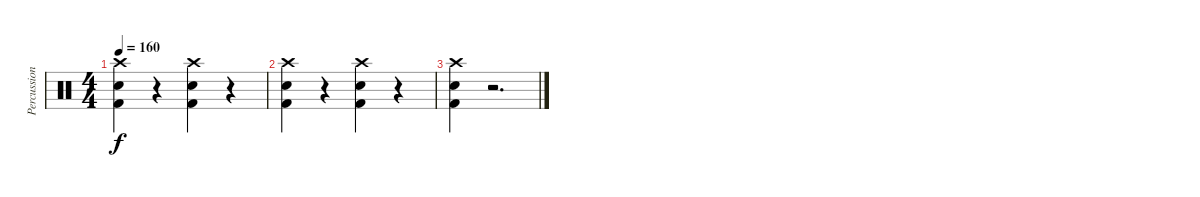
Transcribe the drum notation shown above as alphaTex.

\track ("Percussion" "Percussion") {instrument percussion}
\staff {score}
\articulation defaults
\ts (4 4)
\tempo 160
\clef neutral
\ks c
("Crash high (hit)" "Snare (hit) 2" "Kick (hit) 2").4{dy f} r.4 ("Crash high (hit)" "Snare (hit) 2" "Kick (hit) 2").4 r.4 |
("Crash high (hit)" "Snare (hit) 2" "Kick (hit) 2").4 r.4 ("Crash high (hit)" "Snare (hit) 2" "Kick (hit) 2").4 r.4 |
("Crash high (hit)" "Snare (hit) 2" "Kick (hit) 2").4 r.2{d}
